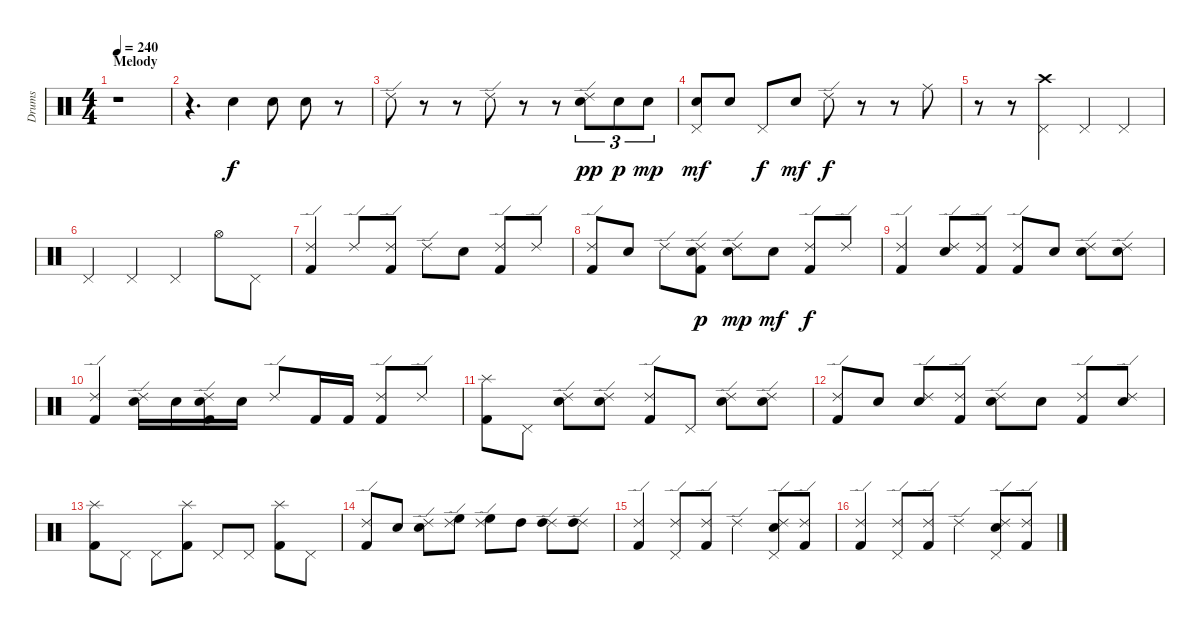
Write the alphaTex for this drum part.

\track ("Drums" "Drums") {instrument percussion}
\staff {score}
\articulation defaults
\ts (4 4)
\section ("" "Melody")
\tempo 240
\clef neutral
\ks c
r.1{dy f} |
r.4{d} "Electric Snare (hit)".4 "Electric Snare (hit)".8 "Electric Snare (hit)".8 r.8 |
"Ride (edge) 2".8 r.8 r.8 "Ride (edge) 2".8 r.8 r.8 ("Ride (edge) 2" "Electric Snare (hit)").8{tu (3 2) dy pp} "Electric Snare (hit)".8{tu (3 2) dy p} "Electric Snare (hit)".8{tu (3 2) dy mp} |
("Pedal Hi-Hat (hit)" "Electric Snare (hit)").8{dy mf} "Electric Snare (hit)".8 "Pedal Hi-Hat (hit)".8{dy f} "Electric Snare (hit)".8{dy mf} "Ride (edge) 2".8{dy f} r.8 r.8 "Ride (middle)".8 |
r.8 r.8 ("Crash high (hit)" "Pedal Hi-Hat (hit)").4 "Pedal Hi-Hat (hit)".4 "Pedal Hi-Hat (hit)".4 |
"Pedal Hi-Hat (hit)".4 "Pedal Hi-Hat (hit)".4 "Pedal Hi-Hat (hit)".4 "Hi-Hat (open)".8 "Pedal Hi-Hat (hit)".8 |
("Ride (edge) 2" "Kick (hit) 2").4 "Ride (edge) 2".8 ("Ride (edge) 2" "Kick (hit) 2").8 "Ride (edge) 2".8 "Snare (hit) 2".8 ("Ride (edge) 2" "Kick (hit) 2").8 "Ride (edge) 2".8 |
("Ride (edge) 2" "Kick (hit) 2").8 "Snare (hit) 2".8 "Ride (edge) 2".8 ("Ride (edge) 2" "Snare (hit) 2" "Kick (hit) 2").8{dy p} ("Ride (edge) 2" "Snare (hit) 2").8{dy mp} "Snare (hit) 2".8{dy mf} ("Ride (edge) 2" "Kick (hit) 2").8{dy f} "Ride (edge) 2".8 |
("Ride (edge) 2" "Kick (hit) 2").4 ("Ride (edge) 2" "Snare (hit) 2").8 ("Ride (edge) 2" "Kick (hit) 2").8 ("Ride (edge) 2" "Kick (hit) 2").8 "Snare (hit) 2".8 ("Ride (edge) 2" "Snare (hit) 2").8 ("Ride (edge) 2" "Snare (hit) 2").8 |
("Ride (edge) 2" "Kick (hit) 2").4 ("Ride (edge) 2" "Snare (hit) 2").16 "Snare (hit) 2".16 ("Ride (edge) 2" "Snare (hit) 2" "Kick (hit) 2").16 "Snare (hit) 2".16 "Ride (edge) 2".8 "Kick (hit) 2".16 "Kick (hit) 2".16 ("Ride (edge) 2" "Kick (hit) 2").8 "Ride (edge) 2".8 |
("Splash (hit)" "Kick (hit) 2").8 "Pedal Hi-Hat (hit)".8 ("Ride (edge) 2" "Snare (hit) 2").8 ("Ride (edge) 2" "Snare (hit) 2").8 ("Ride (edge) 2" "Kick (hit) 2").8 "Pedal Hi-Hat (hit)".8 ("Ride (edge) 2" "Snare (hit) 2").8 ("Ride (edge) 2" "Snare (hit) 2").8 |
("Ride (edge) 2" "Kick (hit) 2").8 "Snare (hit) 2".8 ("Ride (edge) 2" "Snare (hit) 2").8 ("Ride (edge) 2" "Kick (hit) 2").8 ("Ride (edge) 2" "Snare (hit) 2").8 "Snare (hit) 2".8 ("Ride (edge) 2" "Kick (hit) 2").8 ("Ride (edge) 2" "Snare (hit) 2").8 |
("Splash (hit)" "Kick (hit) 2").8 "Pedal Hi-Hat (hit)".8 "Pedal Hi-Hat (hit)".8 ("Splash (hit)" "Kick (hit) 2").8 "Pedal Hi-Hat (hit)".8 "Pedal Hi-Hat (hit)".8 ("Splash (hit)" "Kick (hit) 2").8 "Pedal Hi-Hat (hit)".8 |
("Ride (edge) 2" "Kick (hit) 2").8 "Snare (hit) 2".8 ("Ride (edge) 2" "Snare (hit) 2").8 ("Ride (edge) 2" "High Floor Tom (hit)").8 ("Ride (edge) 2" "High Floor Tom (hit)").8 "High Tom (hit)".8 ("Ride (edge) 2" "High Tom (hit)").8 ("Ride (edge) 2" "High Tom (hit)").8 |
("Ride (edge) 2" "Kick (hit) 2").4 ("Ride (edge) 2" "Pedal Hi-Hat (hit)").8 ("Ride (edge) 2" "Kick (hit) 2").8 "Ride (edge) 2".4 ("Ride (edge) 2" "Pedal Hi-Hat (hit)" "Snare (hit) 2").8 ("Ride (edge) 2" "Kick (hit) 2").8 |
("Ride (edge) 2" "Kick (hit) 2").4 ("Ride (edge) 2" "Pedal Hi-Hat (hit)").8 ("Ride (edge) 2" "Kick (hit) 2").8 "Ride (edge) 2".4 ("Ride (edge) 2" "Pedal Hi-Hat (hit)" "Snare (hit) 2").8 ("Ride (edge) 2" "Kick (hit) 2").8
